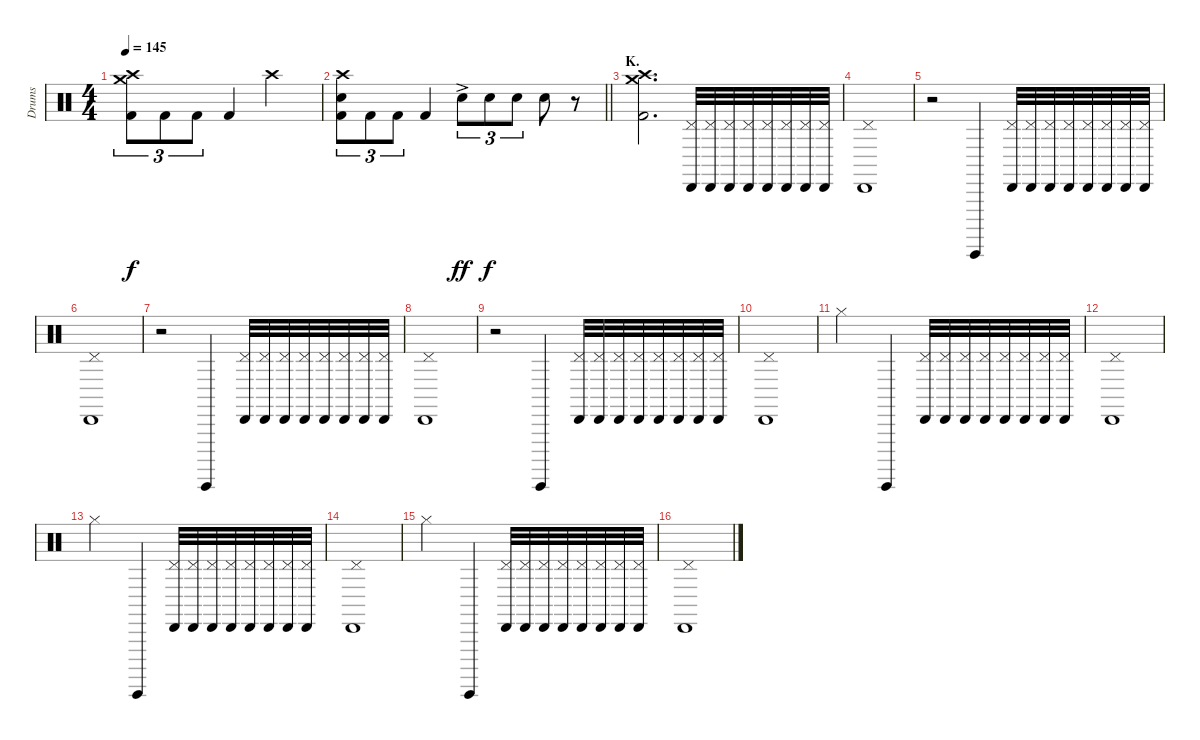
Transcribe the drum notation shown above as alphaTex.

\track ("Drums" "Drums") {instrument percussion}
\staff {score}
\articulation defaults
\ts (4 4)
\tempo 145
\clef neutral
\ks c
("Crash medium (hit)" "Crash high (hit)" "Kick (hit) 2").8{tu (3 2) dy f} "Kick (hit) 2".8{tu (3 2)} "Kick (hit) 2".8{tu (3 2)} "Kick (hit) 2".4 "Crash high (hit)".2 |
\barLineRight lightlight
("Crash high (hit)" "Electric Snare (hit)" "Kick (hit) 2").8{tu (3 2)} "Kick (hit) 2".8{tu (3 2)} "Kick (hit) 2".8{tu (3 2)} "Kick (hit) 2".4 "Electric Snare (hit)"{ac}.8{tu (3 2) dy ff} "Electric Snare (hit)".8{tu (3 2) dy f} "Electric Snare (hit)".8{tu (3 2)} "Electric Snare (hit)".8 r.8 |
\section ("" "K.")
("Crash medium (hit)" "Crash high (hit)" "Kick (hit) 2").2{d} ("Cabasa (hit)" "Pedal Hi-Hat (hit)").32 ("Cabasa (hit)" "Pedal Hi-Hat (hit)").32 ("Cabasa (hit)" "Pedal Hi-Hat (hit)").32 ("Cabasa (hit)" "Pedal Hi-Hat (hit)").32 ("Cabasa (hit)" "Pedal Hi-Hat (hit)").32 ("Cabasa (hit)" "Pedal Hi-Hat (hit)").32 ("Cabasa (hit)" "Pedal Hi-Hat (hit)").32 ("Cabasa (hit)" "Pedal Hi-Hat (hit)").32 |
("Cabasa (hit)" "Pedal Hi-Hat (hit)").1 |
r.2 "Guiro (hit)".4 ("Cabasa (hit)" "Pedal Hi-Hat (hit)").32 ("Cabasa (hit)" "Pedal Hi-Hat (hit)").32 ("Cabasa (hit)" "Pedal Hi-Hat (hit)").32 ("Cabasa (hit)" "Pedal Hi-Hat (hit)").32 ("Cabasa (hit)" "Pedal Hi-Hat (hit)").32 ("Cabasa (hit)" "Pedal Hi-Hat (hit)").32 ("Cabasa (hit)" "Pedal Hi-Hat (hit)").32 ("Cabasa (hit)" "Pedal Hi-Hat (hit)").32 |
("Cabasa (hit)" "Pedal Hi-Hat (hit)").1 |
r.2 "Guiro (hit)".4 ("Cabasa (hit)" "Pedal Hi-Hat (hit)").32 ("Cabasa (hit)" "Pedal Hi-Hat (hit)").32 ("Cabasa (hit)" "Pedal Hi-Hat (hit)").32 ("Cabasa (hit)" "Pedal Hi-Hat (hit)").32 ("Cabasa (hit)" "Pedal Hi-Hat (hit)").32 ("Cabasa (hit)" "Pedal Hi-Hat (hit)").32 ("Cabasa (hit)" "Pedal Hi-Hat (hit)").32 ("Cabasa (hit)" "Pedal Hi-Hat (hit)").32 |
("Cabasa (hit)" "Pedal Hi-Hat (hit)").1 |
r.2 "Guiro (hit)".4 ("Cabasa (hit)" "Pedal Hi-Hat (hit)").32 ("Cabasa (hit)" "Pedal Hi-Hat (hit)").32 ("Cabasa (hit)" "Pedal Hi-Hat (hit)").32 ("Cabasa (hit)" "Pedal Hi-Hat (hit)").32 ("Cabasa (hit)" "Pedal Hi-Hat (hit)").32 ("Cabasa (hit)" "Pedal Hi-Hat (hit)").32 ("Cabasa (hit)" "Pedal Hi-Hat (hit)").32 ("Cabasa (hit)" "Pedal Hi-Hat (hit)").32 |
("Cabasa (hit)" "Pedal Hi-Hat (hit)").1 |
"Hi-Hat (closed)".2 "Guiro (hit)".4 ("Cabasa (hit)" "Pedal Hi-Hat (hit)").32 ("Cabasa (hit)" "Pedal Hi-Hat (hit)").32 ("Cabasa (hit)" "Pedal Hi-Hat (hit)").32 ("Cabasa (hit)" "Pedal Hi-Hat (hit)").32 ("Cabasa (hit)" "Pedal Hi-Hat (hit)").32 ("Cabasa (hit)" "Pedal Hi-Hat (hit)").32 ("Cabasa (hit)" "Pedal Hi-Hat (hit)").32 ("Cabasa (hit)" "Pedal Hi-Hat (hit)").32 |
("Cabasa (hit)" "Pedal Hi-Hat (hit)").1 |
"Hi-Hat (closed)".2 "Guiro (hit)".4 ("Cabasa (hit)" "Pedal Hi-Hat (hit)").32 ("Cabasa (hit)" "Pedal Hi-Hat (hit)").32 ("Cabasa (hit)" "Pedal Hi-Hat (hit)").32 ("Cabasa (hit)" "Pedal Hi-Hat (hit)").32 ("Cabasa (hit)" "Pedal Hi-Hat (hit)").32 ("Cabasa (hit)" "Pedal Hi-Hat (hit)").32 ("Cabasa (hit)" "Pedal Hi-Hat (hit)").32 ("Cabasa (hit)" "Pedal Hi-Hat (hit)").32 |
("Cabasa (hit)" "Pedal Hi-Hat (hit)").1 |
"Hi-Hat (closed)".2 "Guiro (hit)".4 ("Cabasa (hit)" "Pedal Hi-Hat (hit)").32 ("Cabasa (hit)" "Pedal Hi-Hat (hit)").32 ("Cabasa (hit)" "Pedal Hi-Hat (hit)").32 ("Cabasa (hit)" "Pedal Hi-Hat (hit)").32 ("Cabasa (hit)" "Pedal Hi-Hat (hit)").32 ("Cabasa (hit)" "Pedal Hi-Hat (hit)").32 ("Cabasa (hit)" "Pedal Hi-Hat (hit)").32 ("Cabasa (hit)" "Pedal Hi-Hat (hit)").32 |
("Cabasa (hit)" "Pedal Hi-Hat (hit)").1
